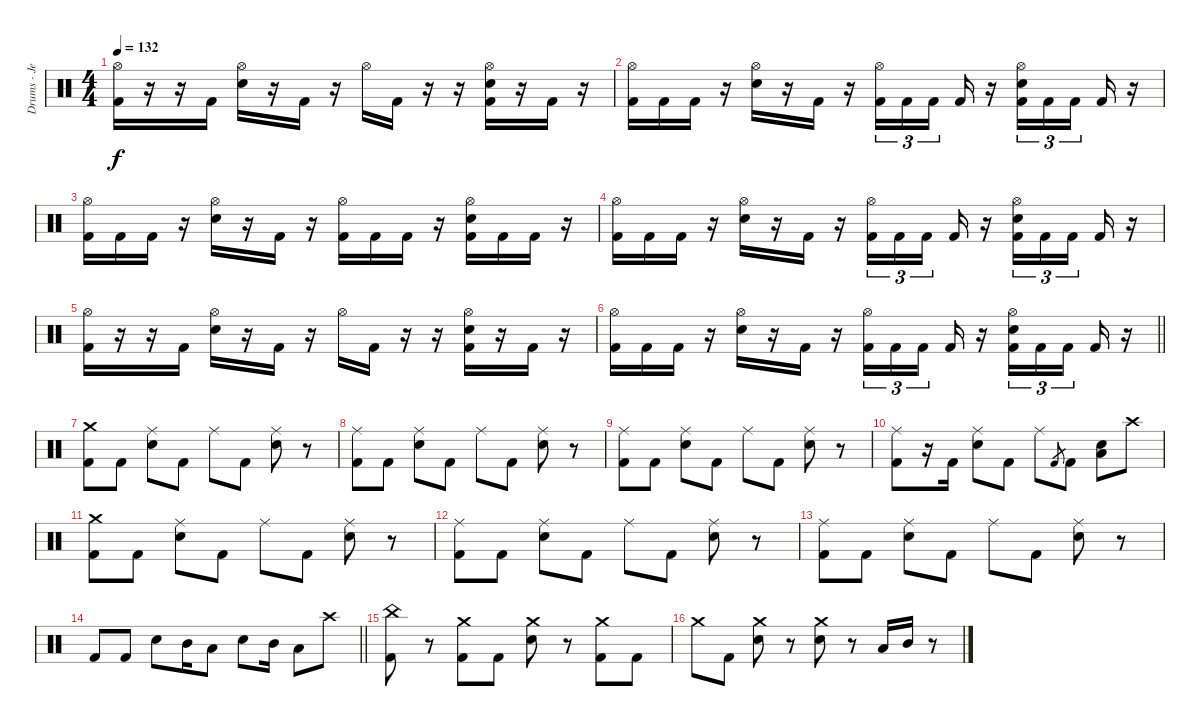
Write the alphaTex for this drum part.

\track ("Drums - Jeroen" "Drums - Je") {instrument percussion}
\staff {score}
\articulation defaults
\ts (4 4)
\tempo 132
\clef neutral
\ks c
("Hi-Hat (open)" "Kick (hit) 2").16{dy f} r.16 r.16 "Kick (hit) 2".16 ("Hi-Hat (open)" "Electric Snare (hit)").16 r.16 "Kick (hit) 2".16 r.16 "Hi-Hat (open)".16 "Kick (hit) 2".16 r.16 r.16 ("Hi-Hat (open)" "Electric Snare (hit)" "Kick (hit) 2").16 r.16 "Kick (hit) 2".16 r.16 |
("Hi-Hat (open)" "Kick (hit) 2").16 "Kick (hit) 2".16 "Kick (hit) 2".16 r.16 ("Hi-Hat (open)" "Electric Snare (hit)").16 r.16 "Kick (hit) 2".16 r.16 ("Hi-Hat (open)" "Kick (hit) 2").16{tu (3 2)} "Kick (hit) 2".16{tu (3 2)} "Kick (hit) 2".16{tu (3 2) beam splitsecondary} "Kick (hit) 2".16 r.16 ("Hi-Hat (open)" "Electric Snare (hit)" "Kick (hit) 2").16{tu (3 2)} "Kick (hit) 2".16{tu (3 2)} "Kick (hit) 2".16{tu (3 2) beam splitsecondary} "Kick (hit) 2".16 r.16 |
("Hi-Hat (open)" "Kick (hit) 2").16 "Kick (hit) 2".16 "Kick (hit) 2".16 r.16 ("Hi-Hat (open)" "Electric Snare (hit)").16 r.16 "Kick (hit) 2".16 r.16 ("Hi-Hat (open)" "Kick (hit) 2").16 "Kick (hit) 2".16 "Kick (hit) 2".16 r.16 ("Hi-Hat (open)" "Electric Snare (hit)" "Kick (hit) 2").16 "Kick (hit) 2".16 "Kick (hit) 2".16 r.16 |
("Hi-Hat (open)" "Kick (hit) 2").16 "Kick (hit) 2".16 "Kick (hit) 2".16 r.16 ("Hi-Hat (open)" "Electric Snare (hit)").16 r.16 "Kick (hit) 2".16 r.16 ("Hi-Hat (open)" "Kick (hit) 2").16{tu (3 2)} "Kick (hit) 2".16{tu (3 2)} "Kick (hit) 2".16{tu (3 2) beam splitsecondary} "Kick (hit) 2".16 r.16 ("Hi-Hat (open)" "Electric Snare (hit)" "Kick (hit) 2").16{tu (3 2)} "Kick (hit) 2".16{tu (3 2)} "Kick (hit) 2".16{tu (3 2) beam splitsecondary} "Kick (hit) 2".16 r.16 |
("Hi-Hat (open)" "Kick (hit) 2").16 r.16 r.16 "Kick (hit) 2".16 ("Hi-Hat (open)" "Electric Snare (hit)").16 r.16 "Kick (hit) 2".16 r.16 "Hi-Hat (open)".16 "Kick (hit) 2".16 r.16 r.16 ("Hi-Hat (open)" "Electric Snare (hit)" "Kick (hit) 2").16 r.16 "Kick (hit) 2".16 r.16 |
\barLineRight lightlight
("Hi-Hat (open)" "Kick (hit) 2").16 "Kick (hit) 2".16 "Kick (hit) 2".16 r.16 ("Hi-Hat (open)" "Electric Snare (hit)").16 r.16 "Kick (hit) 2".16 r.16 ("Hi-Hat (open)" "Kick (hit) 2").16{tu (3 2)} "Kick (hit) 2".16{tu (3 2)} "Kick (hit) 2".16{tu (3 2) beam splitsecondary} "Kick (hit) 2".16 r.16 ("Hi-Hat (open)" "Electric Snare (hit)" "Kick (hit) 2").16{tu (3 2)} "Kick (hit) 2".16{tu (3 2)} "Kick (hit) 2".16{tu (3 2) beam splitsecondary} "Kick (hit) 2".16 r.16 |
\section ("" "")
("Crash medium (hit)" "Kick (hit) 2").8 "Kick (hit) 2".8 ("Ride (middle)" "Electric Snare (hit)").8 "Kick (hit) 2".8 "Ride (middle)".8 "Kick (hit) 2".8 ("Ride (middle)" "Electric Snare (hit)").8 r.8 |
("Ride (middle)" "Kick (hit) 2").8 "Kick (hit) 2".8 ("Ride (middle)" "Electric Snare (hit)").8 "Kick (hit) 2".8 "Ride (middle)".8 "Kick (hit) 2".8 ("Ride (middle)" "Electric Snare (hit)").8 r.8 |
("Ride (middle)" "Kick (hit) 2").8 "Kick (hit) 2".8 ("Ride (middle)" "Electric Snare (hit)").8 "Kick (hit) 2".8 "Ride (middle)".8 "Kick (hit) 2".8 ("Ride (middle)" "Electric Snare (hit)").8 r.8 |
("Ride (middle)" "Kick (hit) 2").8 r.16 "Kick (hit) 2".16 ("Ride (middle)" "Electric Snare (hit)").8 "Kick (hit) 2".8 "Ride (middle)".8 "Kick (hit) 2".8{gr} "Kick (hit) 2".8 ("Low Floor Tom (hit)" "Electric Snare (hit)").8 "Crash high (hit)".8 |
("Crash medium (hit)" "Kick (hit) 2").8 "Kick (hit) 2".8 ("Ride (middle)" "Electric Snare (hit)").8 "Kick (hit) 2".8 "Ride (middle)".8 "Kick (hit) 2".8 ("Ride (middle)" "Electric Snare (hit)").8 r.8 |
("Ride (middle)" "Kick (hit) 2").8 "Kick (hit) 2".8 ("Ride (middle)" "Electric Snare (hit)").8 "Kick (hit) 2".8 "Ride (middle)".8 "Kick (hit) 2".8 ("Ride (middle)" "Electric Snare (hit)").8 r.8 |
("Ride (middle)" "Kick (hit) 2").8 "Kick (hit) 2".8 ("Ride (middle)" "Electric Snare (hit)").8 "Kick (hit) 2".8 "Ride (middle)".8 "Kick (hit) 2".8 ("Ride (middle)" "Electric Snare (hit)").8 r.8 |
\barLineRight lightlight "Kick (hit) 2".8 "Kick (hit) 2".8 "Electric Snare (hit)".8 "Mid Tom (hit)".16 "Low Tom (hit)".8 "Electric Snare (hit)".8 "Mid Tom (hit)".16 "Low Floor Tom (hit)".8 "Crash high (hit)".8
|
("China (hit)" "Kick (hit) 2").8 r.8 ("Crash medium (hit)" "Kick (hit) 2").8 "Kick (hit) 2".8 ("Crash medium (hit)" "Electric Snare (hit)").8 r.8 ("Crash medium (hit)" "Kick (hit) 2").8 "Kick (hit) 2".8 |
"Crash medium (hit)".8 "Kick (hit) 2".8 ("Crash medium (hit)" "Electric Snare (hit)").8 r.8 ("Crash medium (hit)" "Electric Snare (hit)").8 r.8 "Low Tom (hit)".16 "Mid Tom (hit)".16 r.8
